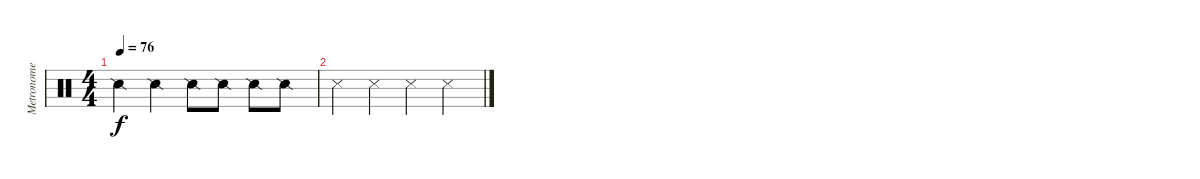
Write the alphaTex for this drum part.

\track ("Metronome" "Metronome") {instrument percussion}
\staff {score}
\articulation defaults
\ts (4 4)
\tempo 76
\clef neutral
\ks c "Snare (side stick) 2".4{dy f} "Snare (side stick) 2".4 "Snare (side stick) 2".8 "Snare (side stick) 2".8 "Snare (side stick) 2".8 "Snare (side stick) 2".8
|
"Metronome (hit)".4 "Metronome (hit)".4 "Metronome (hit)".4 "Metronome (hit)".4
